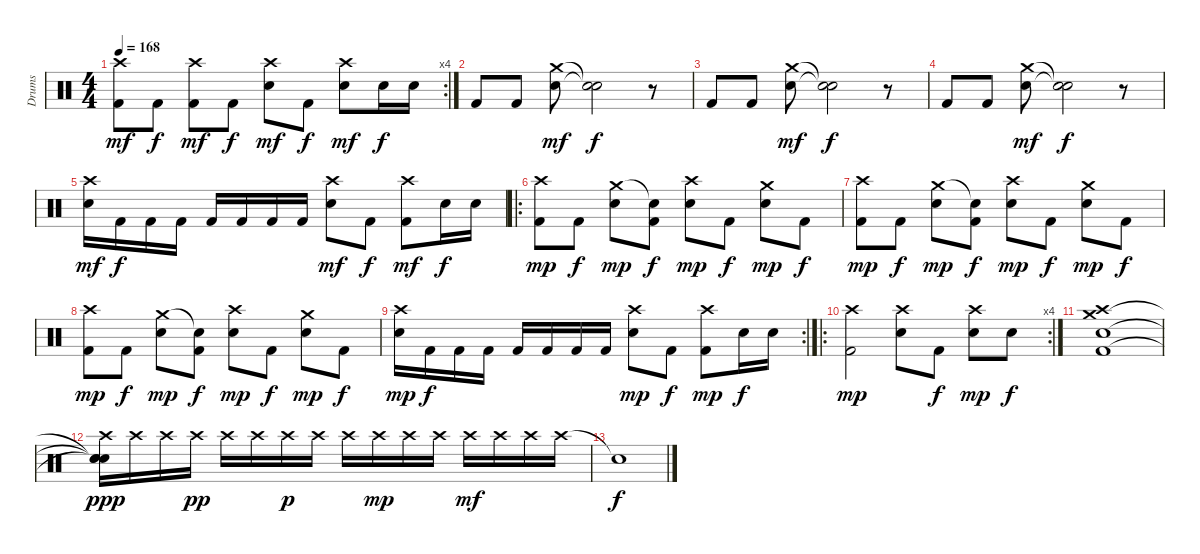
\track ("Drums" "Drums") {instrument percussion}
\staff {score}
\articulation defaults
\rc 4
\ts (4 4)
\tempo 168
\clef neutral
\ks c
("Crash high (hit)" "Kick (hit) 2").8{dy mf} "Kick (hit) 2".8{dy f} ("Crash high (hit)" "Kick (hit) 2").8{dy mf} "Kick (hit) 2".8{dy f} ("Crash high (hit)" "Snare (hit) 2").8{dy mf} "Kick (hit) 2".8{dy f} ("Crash high (hit)" "Snare (hit) 2").8{dy mf} "Snare (hit) 2".16{dy f} "Snare (hit) 2".16 |
"Kick (hit) 2".8 "Kick (hit) 2".8 ("Crash medium (hit)" "Snare (hit) 2").8{dy mf} ("Snare (hit)"{t} "Snare (hit)"{t}).2{dy f} r.8 |
"Kick (hit) 2".8 "Kick (hit) 2".8 ("Crash medium (hit)" "Snare (hit) 2").8{dy mf} ("Snare (hit)"{t} "Snare (hit)"{t}).2{dy f} r.8 |
"Kick (hit) 2".8 "Kick (hit) 2".8 ("Crash medium (hit)" "Snare (hit) 2").8{dy mf} ("Snare (hit)"{t} "Snare (hit)"{t}).2{dy f} r.8 |
("Crash high (hit)" "Snare (hit) 2").16{dy mf} "Kick (hit) 2".16{dy f} "Kick (hit) 2".16 "Kick (hit) 2".16 "Kick (hit) 2".16 "Kick (hit) 2".16 "Kick (hit) 2".16 "Kick (hit) 2".16 ("Crash high (hit)" "Snare (hit) 2").8{dy mf} "Kick (hit) 2".8{dy f} ("Crash high (hit)" "Kick (hit) 2").8{dy mf} "Snare (hit) 2".16{dy f} "Snare (hit) 2".16 |
\ro
("Crash high (hit)" "Kick (hit) 2").8{dy mp} "Kick (hit) 2".8{dy f} ("Crash medium (hit)" "Snare (hit) 2").8{dy mp} ("Snare (hit)"{t} "Kick (hit) 2").8{dy f} ("Crash high (hit)" "Snare (hit) 2").8{dy mp} "Kick (hit) 2".8{dy f} ("Crash medium (hit)" "Snare (hit) 2").8{dy mp} "Kick (hit) 2".8{dy f} |
("Crash high (hit)" "Kick (hit) 2").8{dy mp} "Kick (hit) 2".8{dy f} ("Crash medium (hit)" "Snare (hit) 2").8{dy mp} ("Snare (hit)"{t} "Kick (hit) 2").8{dy f} ("Crash high (hit)" "Snare (hit) 2").8{dy mp} "Kick (hit) 2".8{dy f} ("Crash medium (hit)" "Snare (hit) 2").8{dy mp} "Kick (hit) 2".8{dy f} |
("Crash high (hit)" "Kick (hit) 2").8{dy mp} "Kick (hit) 2".8{dy f} ("Crash medium (hit)" "Snare (hit) 2").8{dy mp} ("Snare (hit)"{t} "Kick (hit) 2").8{dy f} ("Crash high (hit)" "Snare (hit) 2").8{dy mp} "Kick (hit) 2".8{dy f} ("Crash medium (hit)" "Snare (hit) 2").8{dy mp} "Kick (hit) 2".8{dy f} |
\rc 2
("Crash high (hit)" "Snare (hit) 2").16{dy mp} "Kick (hit) 2".16{dy f} "Kick (hit) 2".16 "Kick (hit) 2".16 "Kick (hit) 2".16 "Kick (hit) 2".16 "Kick (hit) 2".16 "Kick (hit) 2".16 ("Crash high (hit)" "Snare (hit) 2").8{dy mp} "Kick (hit) 2".8{dy f} ("Crash high (hit)" "Kick (hit) 2").8{dy mp} "Snare (hit) 2".16{dy f} "Snare (hit) 2".16 |
\ro
\rc 4
("Crash high (hit)" "Kick (hit) 2").2{dy mp} ("Crash high (hit)" "Snare (hit) 2").8 "Kick (hit) 2".8{dy f} ("Crash high (hit)" "Snare (hit) 2").8{dy mp} "Snare (hit) 2".8{dy f} |
("Crash medium (hit)" "Crash high (hit)" "Snare (hit) 2" "Kick (hit) 2").1 |
("Snare (hit)"{t} "Crash high (hit)" "Snare (hit)"{t} "Snare (hit)"{t}).16{dy ppp} "Crash high (hit)".16 "Crash high (hit)".16 "Crash high (hit)".16{dy pp} "Crash high (hit)".16 "Crash high (hit)".16 "Crash high (hit)".16{dy p} "Crash high (hit)".16 "Crash high (hit)".16 "Crash high (hit)".16{dy mp} "Crash high (hit)".16 "Crash high (hit)".16 "Crash high (hit)".16{dy mf} "Crash high (hit)".16 "Crash high (hit)".16 "Crash high (hit)".16 |
"Snare (hit)"{t}.1{dy f}
